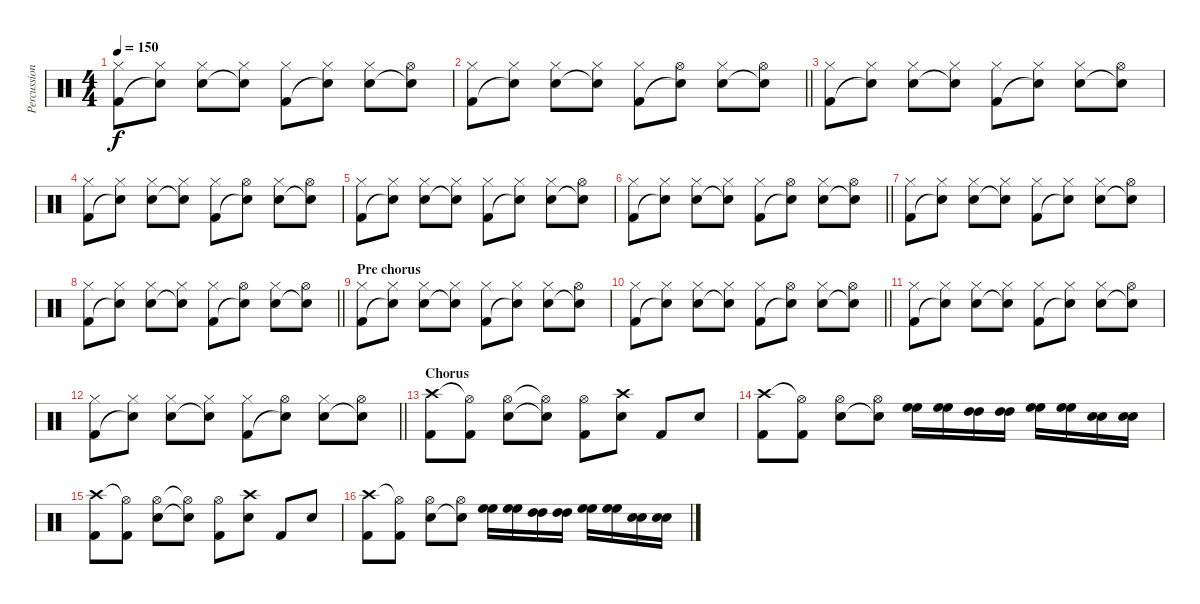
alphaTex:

\track ("Percussion" "Percussion") {instrument percussion}
\staff {score}
\articulation defaults
\ts (4 4)
\tempo 150
\clef neutral
\ks c
("Hi-Hat (closed)" "Kick (hit) 2").8{dy f} ("Hi-Hat (closed)" "Snare (hit)"{t}).8 ("Hi-Hat (closed)" "Snare (hit) 2").8 ("Hi-Hat (closed)" "Snare (hit)"{t}).8 ("Hi-Hat (closed)" "Kick (hit) 2").8 ("Hi-Hat (closed)" "Snare (hit)"{t}).8 ("Hi-Hat (closed)" "Snare (hit) 2").8 ("Hi-Hat (open)" "Snare (hit)"{t}).8 |
\barLineRight lightlight
("Hi-Hat (closed)" "Kick (hit) 2").8 ("Hi-Hat (closed)" "Snare (hit)"{t}).8 ("Hi-Hat (closed)" "Snare (hit) 2").8 ("Hi-Hat (closed)" "Snare (hit)"{t}).8 ("Hi-Hat (closed)" "Kick (hit) 2").8 ("Hi-Hat (open)" "Snare (hit)"{t}).8 ("Hi-Hat (closed)" "Snare (hit) 2").8 ("Hi-Hat (open)" "Snare (hit)"{t}).8 |
("Hi-Hat (closed)" "Kick (hit) 2").8 ("Hi-Hat (closed)" "Snare (hit)"{t}).8 ("Hi-Hat (closed)" "Snare (hit) 2").8 ("Hi-Hat (closed)" "Snare (hit)"{t}).8 ("Hi-Hat (closed)" "Kick (hit) 2").8 ("Hi-Hat (closed)" "Snare (hit)"{t}).8 ("Hi-Hat (closed)" "Snare (hit) 2").8 ("Hi-Hat (open)" "Snare (hit)"{t}).8 |
("Hi-Hat (closed)" "Kick (hit) 2").8 ("Hi-Hat (closed)" "Snare (hit)"{t}).8 ("Hi-Hat (closed)" "Snare (hit) 2").8 ("Hi-Hat (closed)" "Snare (hit)"{t}).8 ("Hi-Hat (closed)" "Kick (hit) 2").8 ("Hi-Hat (open)" "Snare (hit)"{t}).8 ("Hi-Hat (closed)" "Snare (hit) 2").8 ("Hi-Hat (open)" "Snare (hit)"{t}).8 |
("Hi-Hat (closed)" "Kick (hit) 2").8 ("Hi-Hat (closed)" "Snare (hit)"{t}).8 ("Hi-Hat (closed)" "Snare (hit) 2").8 ("Hi-Hat (closed)" "Snare (hit)"{t}).8 ("Hi-Hat (closed)" "Kick (hit) 2").8 ("Hi-Hat (closed)" "Snare (hit)"{t}).8 ("Hi-Hat (closed)" "Snare (hit) 2").8 ("Hi-Hat (open)" "Snare (hit)"{t}).8 |
\barLineRight lightlight
("Hi-Hat (closed)" "Kick (hit) 2").8 ("Hi-Hat (closed)" "Snare (hit)"{t}).8 ("Hi-Hat (closed)" "Snare (hit) 2").8 ("Hi-Hat (closed)" "Snare (hit)"{t}).8 ("Hi-Hat (closed)" "Kick (hit) 2").8 ("Hi-Hat (open)" "Snare (hit)"{t}).8 ("Hi-Hat (closed)" "Snare (hit) 2").8 ("Hi-Hat (open)" "Snare (hit)"{t}).8 |
("Hi-Hat (closed)" "Kick (hit) 2").8 ("Hi-Hat (closed)" "Snare (hit)"{t}).8 ("Hi-Hat (closed)" "Snare (hit) 2").8 ("Hi-Hat (closed)" "Snare (hit)"{t}).8 ("Hi-Hat (closed)" "Kick (hit) 2").8 ("Hi-Hat (closed)" "Snare (hit)"{t}).8 ("Hi-Hat (closed)" "Snare (hit) 2").8 ("Hi-Hat (open)" "Snare (hit)"{t}).8 |
\barLineRight lightlight
("Hi-Hat (closed)" "Kick (hit) 2").8 ("Hi-Hat (closed)" "Snare (hit)"{t}).8 ("Hi-Hat (closed)" "Snare (hit) 2").8 ("Hi-Hat (closed)" "Snare (hit)"{t}).8 ("Hi-Hat (closed)" "Kick (hit) 2").8 ("Hi-Hat (open)" "Snare (hit)"{t}).8 ("Hi-Hat (closed)" "Snare (hit) 2").8 ("Hi-Hat (open)" "Snare (hit)"{t}).8 |
\section ("" "Pre chorus")
("Hi-Hat (closed)" "Kick (hit) 2").8 ("Hi-Hat (closed)" "Snare (hit)"{t}).8 ("Hi-Hat (closed)" "Snare (hit) 2").8 ("Hi-Hat (closed)" "Snare (hit)"{t}).8 ("Hi-Hat (closed)" "Kick (hit) 2").8 ("Hi-Hat (closed)" "Snare (hit)"{t}).8 ("Hi-Hat (closed)" "Snare (hit) 2").8 ("Hi-Hat (open)" "Snare (hit)"{t}).8 |
\barLineRight lightlight
("Hi-Hat (closed)" "Kick (hit) 2").8 ("Hi-Hat (closed)" "Snare (hit)"{t}).8 ("Hi-Hat (closed)" "Snare (hit) 2").8 ("Hi-Hat (closed)" "Snare (hit)"{t}).8 ("Hi-Hat (closed)" "Kick (hit) 2").8 ("Hi-Hat (open)" "Snare (hit)"{t}).8 ("Hi-Hat (closed)" "Snare (hit) 2").8 ("Hi-Hat (open)" "Snare (hit)"{t}).8 |
("Hi-Hat (closed)" "Kick (hit) 2").8 ("Hi-Hat (closed)" "Snare (hit)"{t}).8 ("Hi-Hat (closed)" "Snare (hit) 2").8 ("Hi-Hat (closed)" "Snare (hit)"{t}).8 ("Hi-Hat (closed)" "Kick (hit) 2").8 ("Hi-Hat (closed)" "Snare (hit)"{t}).8 ("Hi-Hat (closed)" "Snare (hit) 2").8 ("Hi-Hat (open)" "Snare (hit)"{t}).8 |
\barLineRight lightlight
("Hi-Hat (closed)" "Kick (hit) 2").8 ("Hi-Hat (closed)" "Snare (hit)"{t}).8 ("Hi-Hat (closed)" "Snare (hit) 2").8 ("Hi-Hat (closed)" "Snare (hit)"{t}).8 ("Hi-Hat (closed)" "Kick (hit) 2").8 ("Hi-Hat (open)" "Snare (hit)"{t}).8 ("Hi-Hat (closed)" "Snare (hit) 2").8 ("Hi-Hat (open)" "Snare (hit)"{t}).8 |
\section ("" "Chorus")
("Crash high (hit)" "Kick (hit) 2").8 ("Hi-Hat (open)"{t} "Kick (hit) 2").8 ("Hi-Hat (open)" "Snare (hit) 2").8 ("Hi-Hat (open)"{t} "Snare (hit) 2"{t}).8 ("Hi-Hat (open)" "Kick (hit) 2").8 ("Crash high (hit)" "Snare (hit) 2").8 "Kick (hit) 2".8 "Snare (hit) 2".8 |
("Crash high (hit)" "Kick (hit) 2").8 ("Hi-Hat (open)"{t} "Kick (hit) 2").8 ("Hi-Hat (open)" "Snare (hit) 2").8 ("Hi-Hat (open)" "Snare (hit) 2"{t}).8 ("High Floor Tom (hit)" "High Floor Tom (hit)").16 ("High Floor Tom (hit)" "High Floor Tom (hit)").16 ("High Tom (hit)" "High Tom (hit)").16 ("High Tom (hit)" "High Tom (hit)").16 ("High Floor Tom (hit)" "High Floor Tom (hit)").16 ("High Floor Tom (hit)" "High Floor Tom (hit)").16 ("Snare (hit) 2" "Snare (hit) 2").16 ("Snare (hit) 2" "Snare (hit) 2").16 |
("Crash high (hit)" "Kick (hit) 2").8 ("Hi-Hat (open)"{t} "Kick (hit) 2").8 ("Hi-Hat (open)" "Snare (hit) 2").8 ("Hi-Hat (open)"{t} "Snare (hit) 2"{t}).8 ("Hi-Hat (open)" "Kick (hit) 2").8 ("Crash high (hit)" "Snare (hit) 2").8 "Kick (hit) 2".8 "Snare (hit) 2".8 |
("Crash high (hit)" "Kick (hit) 2").8 ("Hi-Hat (open)"{t} "Kick (hit) 2").8 ("Hi-Hat (open)" "Snare (hit) 2").8 ("Hi-Hat (open)" "Snare (hit) 2"{t}).8 ("High Floor Tom (hit)" "High Floor Tom (hit)").16 ("High Floor Tom (hit)" "High Floor Tom (hit)").16 ("High Tom (hit)" "High Tom (hit)").16 ("High Tom (hit)" "High Tom (hit)").16 ("High Floor Tom (hit)" "High Floor Tom (hit)").16 ("High Floor Tom (hit)" "High Floor Tom (hit)").16 ("Snare (hit) 2" "Snare (hit) 2").16 ("Snare (hit) 2" "Snare (hit) 2").16
